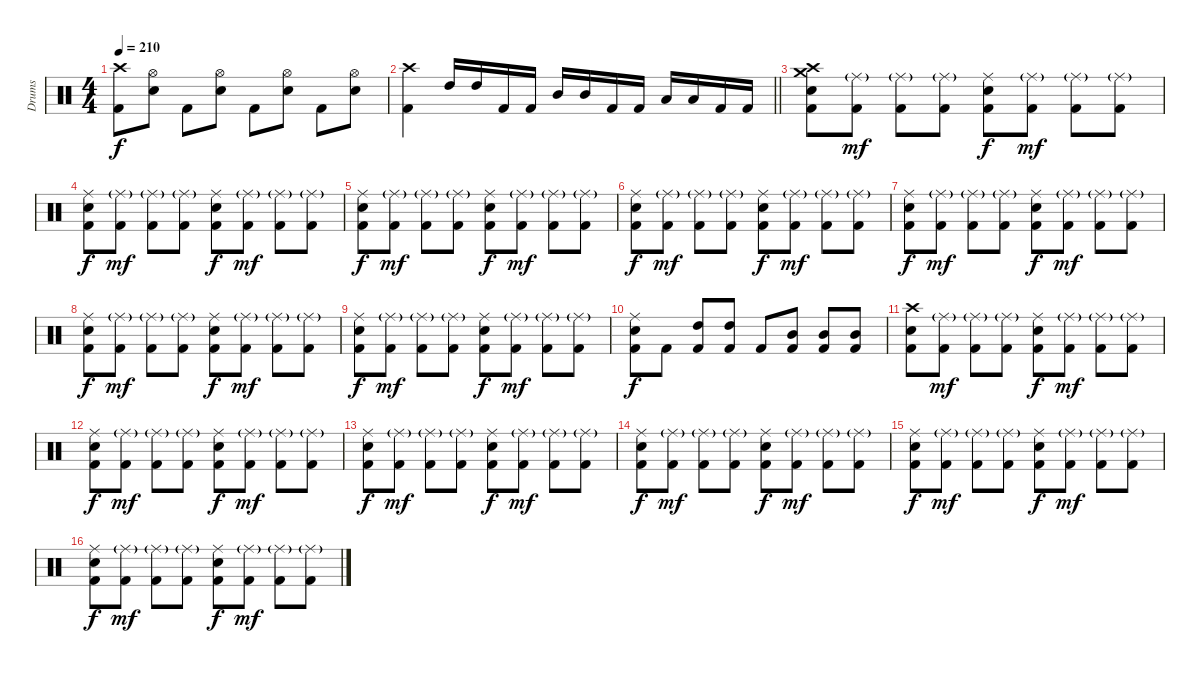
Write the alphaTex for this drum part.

\track ("Drums" "Drums") {instrument percussion}
\staff {score}
\articulation defaults
\ts (4 4)
\tempo 210
\clef neutral
\ks c
("Crash high (hit)" "Kick (hit) 2").8{dy f} ("Hi-Hat (open)" "Electric Snare (hit)").8 "Kick (hit) 2".8 ("Hi-Hat (open)" "Electric Snare (hit)").8 "Kick (hit) 2".8 ("Hi-Hat (open)" "Electric Snare (hit)").8 "Kick (hit) 2".8 ("Hi-Hat (open)" "Electric Snare (hit)").8 |
\barLineRight lightlight
("Crash high (hit)" "Kick (hit) 2").4 "High Tom (hit)".16 "High Tom (hit)".16 "Kick (hit) 2".16 "Kick (hit) 2".16 "Mid Tom (hit)".16 "Mid Tom (hit)".16 "Kick (hit) 2".16 "Kick (hit) 2".16 "Low Tom (hit)".16 "Low Tom (hit)".16 "Kick (hit) 2".16 "Kick (hit) 2".16 |
("Crash high (hit)" "Crash medium (hit)" "Electric Snare (hit)" "Kick (hit) 2").8 ("Ride (middle)"{g} "Kick (hit) 2").8{dy mf} ("Ride (middle)"{g} "Kick (hit) 2").8 ("Ride (middle)"{g} "Kick (hit) 2").8 ("Ride (middle)" "Electric Snare (hit)" "Kick (hit) 2").8{dy f} ("Ride (middle)"{g} "Kick (hit) 2").8{dy mf} ("Ride (middle)"{g} "Kick (hit) 2").8 ("Ride (middle)"{g} "Kick (hit) 2").8 |
("Ride (middle)" "Electric Snare (hit)" "Kick (hit) 2").8{dy f} ("Ride (middle)"{g} "Kick (hit) 2").8{dy mf} ("Ride (middle)"{g} "Kick (hit) 2").8 ("Ride (middle)"{g} "Kick (hit) 2").8 ("Ride (middle)" "Electric Snare (hit)" "Kick (hit) 2").8{dy f} ("Ride (middle)"{g} "Kick (hit) 2").8{dy mf} ("Ride (middle)"{g} "Kick (hit) 2").8 ("Ride (middle)"{g} "Kick (hit) 2").8 |
("Ride (middle)" "Electric Snare (hit)" "Kick (hit) 2").8{dy f} ("Ride (middle)"{g} "Kick (hit) 2").8{dy mf} ("Ride (middle)"{g} "Kick (hit) 2").8 ("Ride (middle)"{g} "Kick (hit) 2").8 ("Ride (middle)" "Electric Snare (hit)" "Kick (hit) 2").8{dy f} ("Ride (middle)"{g} "Kick (hit) 2").8{dy mf} ("Ride (middle)"{g} "Kick (hit) 2").8 ("Ride (middle)"{g} "Kick (hit) 2").8 |
("Ride (middle)" "Electric Snare (hit)" "Kick (hit) 2").8{dy f} ("Ride (middle)"{g} "Kick (hit) 2").8{dy mf} ("Ride (middle)"{g} "Kick (hit) 2").8 ("Ride (middle)"{g} "Kick (hit) 2").8 ("Ride (middle)" "Electric Snare (hit)" "Kick (hit) 2").8{dy f} ("Ride (middle)"{g} "Kick (hit) 2").8{dy mf} ("Ride (middle)"{g} "Kick (hit) 2").8 ("Ride (middle)"{g} "Kick (hit) 2").8 |
("Ride (middle)" "Electric Snare (hit)" "Kick (hit) 2").8{dy f} ("Ride (middle)"{g} "Kick (hit) 2").8{dy mf} ("Ride (middle)"{g} "Kick (hit) 2").8 ("Ride (middle)"{g} "Kick (hit) 2").8 ("Ride (middle)" "Electric Snare (hit)" "Kick (hit) 2").8{dy f} ("Ride (middle)"{g} "Kick (hit) 2").8{dy mf} ("Ride (middle)"{g} "Kick (hit) 2").8 ("Ride (middle)"{g} "Kick (hit) 2").8 |
("Ride (middle)" "Electric Snare (hit)" "Kick (hit) 2").8{dy f} ("Ride (middle)"{g} "Kick (hit) 2").8{dy mf} ("Ride (middle)"{g} "Kick (hit) 2").8 ("Ride (middle)"{g} "Kick (hit) 2").8 ("Ride (middle)" "Electric Snare (hit)" "Kick (hit) 2").8{dy f} ("Ride (middle)"{g} "Kick (hit) 2").8{dy mf} ("Ride (middle)"{g} "Kick (hit) 2").8 ("Ride (middle)"{g} "Kick (hit) 2").8 |
("Ride (middle)" "Electric Snare (hit)" "Kick (hit) 2").8{dy f} ("Ride (middle)"{g} "Kick (hit) 2").8{dy mf} ("Ride (middle)"{g} "Kick (hit) 2").8 ("Ride (middle)"{g} "Kick (hit) 2").8 ("Ride (middle)" "Electric Snare (hit)" "Kick (hit) 2").8{dy f} ("Ride (middle)"{g} "Kick (hit) 2").8{dy mf} ("Ride (middle)"{g} "Kick (hit) 2").8 ("Ride (middle)"{g} "Kick (hit) 2").8 |
("Ride (middle)" "Electric Snare (hit)" "Kick (hit) 2").8{dy f} "Kick (hit) 2".8 ("High Tom (hit)" "Kick (hit) 2").8 ("High Tom (hit)" "Kick (hit) 2").8 "Kick (hit) 2".8 ("Mid Tom (hit)" "Kick (hit) 2").8 ("Mid Tom (hit)" "Kick (hit) 2").8 ("Mid Tom (hit)" "Kick (hit) 2").8 |
("Crash high (hit)" "Electric Snare (hit)" "Kick (hit) 2").8 ("Ride (middle)"{g} "Kick (hit) 2").8{dy mf} ("Ride (middle)"{g} "Kick (hit) 2").8 ("Ride (middle)"{g} "Kick (hit) 2").8 ("Ride (middle)" "Electric Snare (hit)" "Kick (hit) 2").8{dy f} ("Ride (middle)"{g} "Kick (hit) 2").8{dy mf} ("Ride (middle)"{g} "Kick (hit) 2").8 ("Ride (middle)"{g} "Kick (hit) 2").8 |
("Ride (middle)" "Electric Snare (hit)" "Kick (hit) 2").8{dy f} ("Ride (middle)"{g} "Kick (hit) 2").8{dy mf} ("Ride (middle)"{g} "Kick (hit) 2").8 ("Ride (middle)"{g} "Kick (hit) 2").8 ("Ride (middle)" "Electric Snare (hit)" "Kick (hit) 2").8{dy f} ("Ride (middle)"{g} "Kick (hit) 2").8{dy mf} ("Ride (middle)"{g} "Kick (hit) 2").8 ("Ride (middle)"{g} "Kick (hit) 2").8 |
("Ride (middle)" "Electric Snare (hit)" "Kick (hit) 2").8{dy f} ("Ride (middle)"{g} "Kick (hit) 2").8{dy mf} ("Ride (middle)"{g} "Kick (hit) 2").8 ("Ride (middle)"{g} "Kick (hit) 2").8 ("Ride (middle)" "Electric Snare (hit)" "Kick (hit) 2").8{dy f} ("Ride (middle)"{g} "Kick (hit) 2").8{dy mf} ("Ride (middle)"{g} "Kick (hit) 2").8 ("Ride (middle)"{g} "Kick (hit) 2").8 |
("Ride (middle)" "Electric Snare (hit)" "Kick (hit) 2").8{dy f} ("Ride (middle)"{g} "Kick (hit) 2").8{dy mf} ("Ride (middle)"{g} "Kick (hit) 2").8 ("Ride (middle)"{g} "Kick (hit) 2").8 ("Ride (middle)" "Electric Snare (hit)" "Kick (hit) 2").8{dy f} ("Ride (middle)"{g} "Kick (hit) 2").8{dy mf} ("Ride (middle)"{g} "Kick (hit) 2").8 ("Ride (middle)"{g} "Kick (hit) 2").8 |
("Ride (middle)" "Electric Snare (hit)" "Kick (hit) 2").8{dy f} ("Ride (middle)"{g} "Kick (hit) 2").8{dy mf} ("Ride (middle)"{g} "Kick (hit) 2").8 ("Ride (middle)"{g} "Kick (hit) 2").8 ("Ride (middle)" "Electric Snare (hit)" "Kick (hit) 2").8{dy f} ("Ride (middle)"{g} "Kick (hit) 2").8{dy mf} ("Ride (middle)"{g} "Kick (hit) 2").8 ("Ride (middle)"{g} "Kick (hit) 2").8 |
("Ride (middle)" "Electric Snare (hit)" "Kick (hit) 2").8{dy f} ("Ride (middle)"{g} "Kick (hit) 2").8{dy mf} ("Ride (middle)"{g} "Kick (hit) 2").8 ("Ride (middle)"{g} "Kick (hit) 2").8 ("Ride (middle)" "Electric Snare (hit)" "Kick (hit) 2").8{dy f} ("Ride (middle)"{g} "Kick (hit) 2").8{dy mf} ("Ride (middle)"{g} "Kick (hit) 2").8 ("Ride (middle)"{g} "Kick (hit) 2").8
